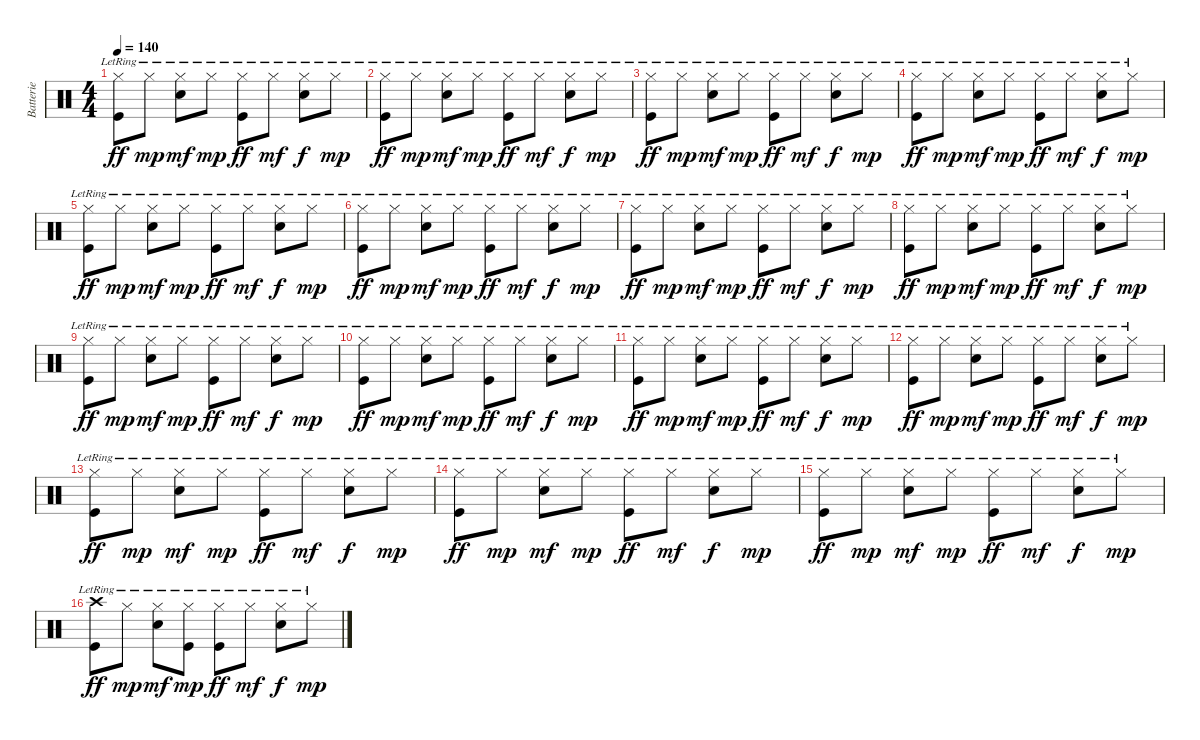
\track ("Batterie" "Batterie") {instrument percussion}
\staff {score}
\articulation defaults
\ts (4 4)
\tempo 140
\clef neutral
\ks c
("Hi-Hat (closed)"{lr} "Kick (hit)"{lr}).8{dy ff} "Hi-Hat (closed)"{lr}.8{dy mp} ("Hi-Hat (closed)"{lr} "Snare (hit) 2"{lr}).8{dy mf} "Hi-Hat (closed)"{lr}.8{dy mp} ("Hi-Hat (closed)"{lr} "Kick (hit)"{lr}).8{dy ff} "Hi-Hat (closed)"{lr}.8{dy mf} ("Hi-Hat (closed)"{lr} "Snare (hit) 2"{lr}).8{dy f} "Hi-Hat (closed)"{lr}.8{dy mp} |
("Hi-Hat (closed)"{lr} "Kick (hit)"{lr}).8{dy ff} "Hi-Hat (closed)"{lr}.8{dy mp} ("Hi-Hat (closed)"{lr} "Snare (hit) 2"{lr}).8{dy mf} "Hi-Hat (closed)"{lr}.8{dy mp} ("Hi-Hat (closed)"{lr} "Kick (hit)"{lr}).8{dy ff} "Hi-Hat (closed)"{lr}.8{dy mf} ("Hi-Hat (closed)"{lr} "Snare (hit) 2"{lr}).8{dy f} "Hi-Hat (closed)"{lr}.8{dy mp} |
("Hi-Hat (closed)"{lr} "Kick (hit)"{lr}).8{dy ff} "Hi-Hat (closed)"{lr}.8{dy mp} ("Hi-Hat (closed)"{lr} "Snare (hit) 2"{lr}).8{dy mf} "Hi-Hat (closed)"{lr}.8{dy mp} ("Hi-Hat (closed)"{lr} "Kick (hit)"{lr}).8{dy ff} "Hi-Hat (closed)"{lr}.8{dy mf} ("Hi-Hat (closed)"{lr} "Snare (hit) 2"{lr}).8{dy f} "Hi-Hat (closed)"{lr}.8{dy mp} |
("Hi-Hat (closed)"{lr} "Kick (hit)"{lr}).8{dy ff} "Hi-Hat (closed)"{lr}.8{dy mp} ("Hi-Hat (closed)"{lr} "Snare (hit) 2"{lr}).8{dy mf} "Hi-Hat (closed)"{lr}.8{dy mp} ("Hi-Hat (closed)"{lr} "Kick (hit)"{lr}).8{dy ff} "Hi-Hat (closed)"{lr}.8{dy mf} ("Hi-Hat (closed)"{lr} "Snare (hit) 2"{lr}).8{dy f} "Hi-Hat (closed)"{lr}.8{dy mp} |
("Hi-Hat (closed)"{lr} "Kick (hit)"{lr}).8{dy ff} "Hi-Hat (closed)"{lr}.8{dy mp} ("Hi-Hat (closed)"{lr} "Snare (hit) 2"{lr}).8{dy mf} "Hi-Hat (closed)"{lr}.8{dy mp} ("Hi-Hat (closed)"{lr} "Kick (hit)"{lr}).8{dy ff} "Hi-Hat (closed)"{lr}.8{dy mf} ("Hi-Hat (closed)"{lr} "Snare (hit) 2"{lr}).8{dy f} "Hi-Hat (closed)"{lr}.8{dy mp} |
("Hi-Hat (closed)"{lr} "Kick (hit)"{lr}).8{dy ff} "Hi-Hat (closed)"{lr}.8{dy mp} ("Hi-Hat (closed)"{lr} "Snare (hit) 2"{lr}).8{dy mf} "Hi-Hat (closed)"{lr}.8{dy mp} ("Hi-Hat (closed)"{lr} "Kick (hit)"{lr}).8{dy ff} "Hi-Hat (closed)"{lr}.8{dy mf} ("Hi-Hat (closed)"{lr} "Snare (hit) 2"{lr}).8{dy f} "Hi-Hat (closed)"{lr}.8{dy mp} |
("Hi-Hat (closed)"{lr} "Kick (hit)"{lr}).8{dy ff} "Hi-Hat (closed)"{lr}.8{dy mp} ("Hi-Hat (closed)"{lr} "Snare (hit) 2"{lr}).8{dy mf} "Hi-Hat (closed)"{lr}.8{dy mp} ("Hi-Hat (closed)"{lr} "Kick (hit)"{lr}).8{dy ff} "Hi-Hat (closed)"{lr}.8{dy mf} ("Hi-Hat (closed)"{lr} "Snare (hit) 2"{lr}).8{dy f} "Hi-Hat (closed)"{lr}.8{dy mp} |
("Hi-Hat (closed)"{lr} "Kick (hit)"{lr}).8{dy ff} "Hi-Hat (closed)"{lr}.8{dy mp} ("Hi-Hat (closed)"{lr} "Snare (hit) 2"{lr}).8{dy mf} "Hi-Hat (closed)"{lr}.8{dy mp} ("Hi-Hat (closed)"{lr} "Kick (hit)"{lr}).8{dy ff} "Hi-Hat (closed)"{lr}.8{dy mf} ("Hi-Hat (closed)"{lr} "Snare (hit) 2"{lr}).8{dy f} "Hi-Hat (closed)"{lr}.8{dy mp} |
("Hi-Hat (closed)"{lr} "Kick (hit)"{lr}).8{dy ff} "Hi-Hat (closed)"{lr}.8{dy mp} ("Hi-Hat (closed)"{lr} "Snare (hit) 2"{lr}).8{dy mf} "Hi-Hat (closed)"{lr}.8{dy mp} ("Hi-Hat (closed)"{lr} "Kick (hit)"{lr}).8{dy ff} "Hi-Hat (closed)"{lr}.8{dy mf} ("Hi-Hat (closed)"{lr} "Snare (hit) 2"{lr}).8{dy f} "Hi-Hat (closed)"{lr}.8{dy mp} |
("Hi-Hat (closed)"{lr} "Kick (hit)"{lr}).8{dy ff} "Hi-Hat (closed)"{lr}.8{dy mp} ("Hi-Hat (closed)"{lr} "Snare (hit) 2"{lr}).8{dy mf} "Hi-Hat (closed)"{lr}.8{dy mp} ("Hi-Hat (closed)"{lr} "Kick (hit)"{lr}).8{dy ff} "Hi-Hat (closed)"{lr}.8{dy mf} ("Hi-Hat (closed)"{lr} "Snare (hit) 2"{lr}).8{dy f} "Hi-Hat (closed)"{lr}.8{dy mp} |
("Hi-Hat (closed)"{lr} "Kick (hit)"{lr}).8{dy ff} "Hi-Hat (closed)"{lr}.8{dy mp} ("Hi-Hat (closed)"{lr} "Snare (hit) 2"{lr}).8{dy mf} "Hi-Hat (closed)"{lr}.8{dy mp} ("Hi-Hat (closed)"{lr} "Kick (hit)"{lr}).8{dy ff} "Hi-Hat (closed)"{lr}.8{dy mf} ("Hi-Hat (closed)"{lr} "Snare (hit) 2"{lr}).8{dy f} "Hi-Hat (closed)"{lr}.8{dy mp} |
("Hi-Hat (closed)"{lr} "Kick (hit)"{lr}).8{dy ff} "Hi-Hat (closed)"{lr}.8{dy mp} ("Hi-Hat (closed)"{lr} "Snare (hit) 2"{lr}).8{dy mf} "Hi-Hat (closed)"{lr}.8{dy mp} ("Hi-Hat (closed)"{lr} "Kick (hit)"{lr}).8{dy ff} "Hi-Hat (closed)"{lr}.8{dy mf} ("Hi-Hat (closed)"{lr} "Snare (hit) 2"{lr}).8{dy f} "Hi-Hat (closed)"{lr}.8{dy mp} |
("Hi-Hat (closed)"{lr} "Kick (hit)"{lr}).8{dy ff} "Hi-Hat (closed)"{lr}.8{dy mp} ("Hi-Hat (closed)"{lr} "Snare (hit) 2"{lr}).8{dy mf} "Hi-Hat (closed)"{lr}.8{dy mp} ("Hi-Hat (closed)"{lr} "Kick (hit)"{lr}).8{dy ff} "Hi-Hat (closed)"{lr}.8{dy mf} ("Hi-Hat (closed)"{lr} "Snare (hit) 2"{lr}).8{dy f} "Hi-Hat (closed)"{lr}.8{dy mp} |
("Hi-Hat (closed)"{lr} "Kick (hit)"{lr}).8{dy ff} "Hi-Hat (closed)"{lr}.8{dy mp} ("Hi-Hat (closed)"{lr} "Snare (hit) 2"{lr}).8{dy mf} "Hi-Hat (closed)"{lr}.8{dy mp} ("Hi-Hat (closed)"{lr} "Kick (hit)"{lr}).8{dy ff} "Hi-Hat (closed)"{lr}.8{dy mf} ("Hi-Hat (closed)"{lr} "Snare (hit) 2"{lr}).8{dy f} "Hi-Hat (closed)"{lr}.8{dy mp} |
("Hi-Hat (closed)"{lr} "Kick (hit)"{lr}).8{dy ff} "Hi-Hat (closed)"{lr}.8{dy mp} ("Hi-Hat (closed)"{lr} "Snare (hit) 2"{lr}).8{dy mf} "Hi-Hat (closed)"{lr}.8{dy mp} ("Hi-Hat (closed)"{lr} "Kick (hit)"{lr}).8{dy ff} "Hi-Hat (closed)"{lr}.8{dy mf} ("Hi-Hat (closed)"{lr} "Snare (hit) 2"{lr}).8{dy f} "Hi-Hat (closed)"{lr}.8{dy mp} |
("Crash high (hit)" "Kick (hit)"{lr}).8{dy ff} "Hi-Hat (closed)"{lr}.8{dy mp} ("Hi-Hat (closed)"{lr} "Snare (hit) 2"{lr}).8{dy mf} ("Hi-Hat (closed)"{lr} "Kick (hit)").8{dy mp} ("Hi-Hat (closed)"{lr} "Kick (hit)"{lr}).8{dy ff} "Hi-Hat (closed)"{lr}.8{dy mf} ("Hi-Hat (closed)"{lr} "Snare (hit) 2"{lr}).8{dy f} "Hi-Hat (closed)"{lr}.8{dy mp}
